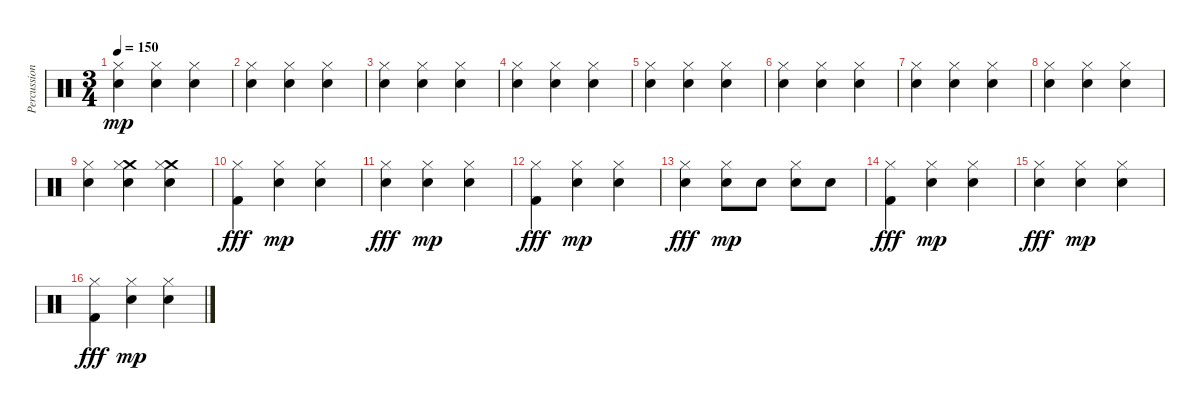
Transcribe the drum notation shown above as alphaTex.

\track ("Percussion" "Percussion") {instrument percussion}
\staff {score}
\articulation defaults
\ts (3 4)
\tempo 150
\clef neutral
\ks c
("Hi-Hat (closed)" "Electric Snare (hit)").4{dy mp} ("Hi-Hat (closed)" "Electric Snare (hit)").4 ("Hi-Hat (closed)" "Electric Snare (hit)").4 |
("Hi-Hat (closed)" "Electric Snare (hit)").4 ("Hi-Hat (closed)" "Electric Snare (hit)").4 ("Hi-Hat (closed)" "Electric Snare (hit)").4 |
("Hi-Hat (closed)" "Electric Snare (hit)").4 ("Hi-Hat (closed)" "Electric Snare (hit)").4 ("Hi-Hat (closed)" "Electric Snare (hit)").4 |
("Hi-Hat (closed)" "Electric Snare (hit)").4 ("Hi-Hat (closed)" "Electric Snare (hit)").4 ("Hi-Hat (closed)" "Electric Snare (hit)").4 |
("Hi-Hat (closed)" "Electric Snare (hit)").4 ("Hi-Hat (closed)" "Electric Snare (hit)").4 ("Hi-Hat (closed)" "Electric Snare (hit)").4 |
("Hi-Hat (closed)" "Electric Snare (hit)").4 ("Hi-Hat (closed)" "Electric Snare (hit)").4 ("Hi-Hat (closed)" "Electric Snare (hit)").4 |
("Hi-Hat (closed)" "Electric Snare (hit)").4 ("Hi-Hat (closed)" "Electric Snare (hit)").4 ("Hi-Hat (closed)" "Electric Snare (hit)").4 |
("Hi-Hat (closed)" "Electric Snare (hit)").4 ("Hi-Hat (closed)" "Electric Snare (hit)").4 ("Hi-Hat (closed)" "Electric Snare (hit)").4 |
("Hi-Hat (closed)" "Electric Snare (hit)").4 ("Crash medium (hit)" "Hi-Hat (closed)" "Electric Snare (hit)").4 ("Crash medium (hit)" "Hi-Hat (closed)" "Electric Snare (hit)").4 |
("Hi-Hat (closed)" "Kick (hit) 2").4{dy fff} ("Hi-Hat (closed)" "Electric Snare (hit)").4{dy mp} ("Hi-Hat (closed)" "Electric Snare (hit)").4 |
("Hi-Hat (closed)" "Electric Snare (hit)").4{dy fff} ("Hi-Hat (closed)" "Electric Snare (hit)").4{dy mp} ("Hi-Hat (closed)" "Electric Snare (hit)").4 |
("Hi-Hat (closed)" "Kick (hit) 2").4{dy fff} ("Hi-Hat (closed)" "Electric Snare (hit)").4{dy mp} ("Hi-Hat (closed)" "Electric Snare (hit)").4 |
("Hi-Hat (closed)" "Electric Snare (hit)").4{dy fff} ("Hi-Hat (closed)" "Electric Snare (hit)").8{dy mp} "Electric Snare (hit)".8 ("Hi-Hat (closed)" "Electric Snare (hit)").8 "Electric Snare (hit)".8 |
("Hi-Hat (closed)" "Kick (hit) 2").4{dy fff} ("Hi-Hat (closed)" "Electric Snare (hit)").4{dy mp} ("Hi-Hat (closed)" "Electric Snare (hit)").4 |
("Hi-Hat (closed)" "Electric Snare (hit)").4{dy fff} ("Hi-Hat (closed)" "Electric Snare (hit)").4{dy mp} ("Hi-Hat (closed)" "Electric Snare (hit)").4 |
("Hi-Hat (closed)" "Kick (hit) 2").4{dy fff} ("Hi-Hat (closed)" "Electric Snare (hit)").4{dy mp} ("Hi-Hat (closed)" "Electric Snare (hit)").4
